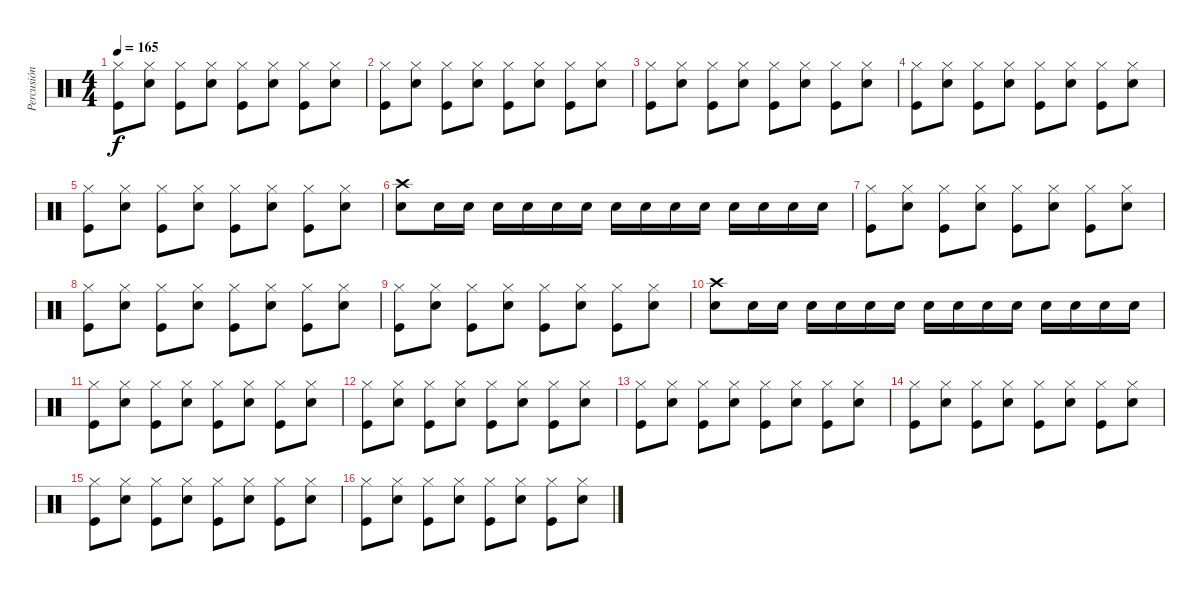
\track ("Percusión" "Percusión") {instrument percussion}
\staff {score}
\articulation defaults
\ts (4 4)
\tempo 165
\clef neutral
\ks c
("Hi-Hat (closed)" "Kick (hit)").8{dy f} ("Hi-Hat (closed)" "Snare (hit) 2").8 ("Hi-Hat (closed)" "Kick (hit)").8 ("Hi-Hat (closed)" "Snare (hit) 2").8 ("Hi-Hat (closed)" "Kick (hit)").8 ("Hi-Hat (closed)" "Snare (hit) 2").8 ("Hi-Hat (closed)" "Kick (hit)").8 ("Hi-Hat (closed)" "Snare (hit) 2").8 |
("Hi-Hat (closed)" "Kick (hit)").8 ("Hi-Hat (closed)" "Snare (hit) 2").8 ("Hi-Hat (closed)" "Kick (hit)").8 ("Hi-Hat (closed)" "Snare (hit) 2").8 ("Hi-Hat (closed)" "Kick (hit)").8 ("Hi-Hat (closed)" "Snare (hit) 2").8 ("Hi-Hat (closed)" "Kick (hit)").8 ("Hi-Hat (closed)" "Snare (hit) 2").8 |
("Hi-Hat (closed)" "Kick (hit)").8 ("Hi-Hat (closed)" "Snare (hit) 2").8 ("Hi-Hat (closed)" "Kick (hit)").8 ("Hi-Hat (closed)" "Snare (hit) 2").8 ("Hi-Hat (closed)" "Kick (hit)").8 ("Hi-Hat (closed)" "Snare (hit) 2").8 ("Hi-Hat (closed)" "Kick (hit)").8 ("Hi-Hat (closed)" "Snare (hit) 2").8 |
("Hi-Hat (closed)" "Kick (hit)").8 ("Hi-Hat (closed)" "Snare (hit) 2").8 ("Hi-Hat (closed)" "Kick (hit)").8 ("Hi-Hat (closed)" "Snare (hit) 2").8 ("Hi-Hat (closed)" "Kick (hit)").8 ("Hi-Hat (closed)" "Snare (hit) 2").8 ("Hi-Hat (closed)" "Kick (hit)").8 ("Hi-Hat (closed)" "Snare (hit) 2").8 |
("Hi-Hat (closed)" "Kick (hit)").8 ("Hi-Hat (closed)" "Snare (hit) 2").8 ("Hi-Hat (closed)" "Kick (hit)").8 ("Hi-Hat (closed)" "Snare (hit) 2").8 ("Hi-Hat (closed)" "Kick (hit)").8 ("Hi-Hat (closed)" "Snare (hit) 2").8 ("Hi-Hat (closed)" "Kick (hit)").8 ("Hi-Hat (closed)" "Snare (hit) 2").8 |
("Crash high (hit)" "Snare (hit) 2").8 "Snare (hit) 2".16 "Snare (hit) 2".16 "Snare (hit) 2".16 "Snare (hit) 2".16 "Snare (hit) 2".16 "Snare (hit) 2".16 "Snare (hit) 2".16 "Snare (hit) 2".16 "Snare (hit) 2".16 "Snare (hit) 2".16 "Snare (hit) 2".16 "Snare (hit) 2".16 "Snare (hit) 2".16 "Snare (hit) 2".16 |
("Hi-Hat (closed)" "Kick (hit)").8 ("Hi-Hat (closed)" "Snare (hit) 2").8 ("Hi-Hat (closed)" "Kick (hit)").8 ("Hi-Hat (closed)" "Snare (hit) 2").8 ("Hi-Hat (closed)" "Kick (hit)").8 ("Hi-Hat (closed)" "Snare (hit) 2").8 ("Hi-Hat (closed)" "Kick (hit)").8 ("Hi-Hat (closed)" "Snare (hit) 2").8 |
("Hi-Hat (closed)" "Kick (hit)").8 ("Hi-Hat (closed)" "Snare (hit) 2").8 ("Hi-Hat (closed)" "Kick (hit)").8 ("Hi-Hat (closed)" "Snare (hit) 2").8 ("Hi-Hat (closed)" "Kick (hit)").8 ("Hi-Hat (closed)" "Snare (hit) 2").8 ("Hi-Hat (closed)" "Kick (hit)").8 ("Hi-Hat (closed)" "Snare (hit) 2").8 |
("Hi-Hat (closed)" "Kick (hit)").8 ("Hi-Hat (closed)" "Snare (hit) 2").8 ("Hi-Hat (closed)" "Kick (hit)").8 ("Hi-Hat (closed)" "Snare (hit) 2").8 ("Hi-Hat (closed)" "Kick (hit)").8 ("Hi-Hat (closed)" "Snare (hit) 2").8 ("Hi-Hat (closed)" "Kick (hit)").8 ("Hi-Hat (closed)" "Snare (hit) 2").8 |
("Crash high (hit)" "Snare (hit) 2").8 "Snare (hit) 2".16 "Snare (hit) 2".16 "Snare (hit) 2".16 "Snare (hit) 2".16 "Snare (hit) 2".16 "Snare (hit) 2".16 "Snare (hit) 2".16 "Snare (hit) 2".16 "Snare (hit) 2".16 "Snare (hit) 2".16 "Snare (hit) 2".16 "Snare (hit) 2".16 "Snare (hit) 2".16 "Snare (hit) 2".16 |
("Hi-Hat (closed)" "Kick (hit)").8 ("Hi-Hat (closed)" "Snare (hit) 2").8 ("Hi-Hat (closed)" "Kick (hit)").8 ("Hi-Hat (closed)" "Snare (hit) 2").8 ("Hi-Hat (closed)" "Kick (hit)").8 ("Hi-Hat (closed)" "Snare (hit) 2").8 ("Hi-Hat (closed)" "Kick (hit)").8 ("Hi-Hat (closed)" "Snare (hit) 2").8 |
("Hi-Hat (closed)" "Kick (hit)").8 ("Hi-Hat (closed)" "Snare (hit) 2").8 ("Hi-Hat (closed)" "Kick (hit)").8 ("Hi-Hat (closed)" "Snare (hit) 2").8 ("Hi-Hat (closed)" "Kick (hit)").8 ("Hi-Hat (closed)" "Snare (hit) 2").8 ("Hi-Hat (closed)" "Kick (hit)").8 ("Hi-Hat (closed)" "Snare (hit) 2").8 |
("Hi-Hat (closed)" "Kick (hit)").8 ("Hi-Hat (closed)" "Snare (hit) 2").8 ("Hi-Hat (closed)" "Kick (hit)").8 ("Hi-Hat (closed)" "Snare (hit) 2").8 ("Hi-Hat (closed)" "Kick (hit)").8 ("Hi-Hat (closed)" "Snare (hit) 2").8 ("Hi-Hat (closed)" "Kick (hit)").8 ("Hi-Hat (closed)" "Snare (hit) 2").8 |
("Hi-Hat (closed)" "Kick (hit)").8 ("Hi-Hat (closed)" "Snare (hit) 2").8 ("Hi-Hat (closed)" "Kick (hit)").8 ("Hi-Hat (closed)" "Snare (hit) 2").8 ("Hi-Hat (closed)" "Kick (hit)").8 ("Hi-Hat (closed)" "Snare (hit) 2").8 ("Hi-Hat (closed)" "Kick (hit)").8 ("Hi-Hat (closed)" "Snare (hit) 2").8 |
("Hi-Hat (closed)" "Kick (hit)").8 ("Hi-Hat (closed)" "Snare (hit) 2").8 ("Hi-Hat (closed)" "Kick (hit)").8 ("Hi-Hat (closed)" "Snare (hit) 2").8 ("Hi-Hat (closed)" "Kick (hit)").8 ("Hi-Hat (closed)" "Snare (hit) 2").8 ("Hi-Hat (closed)" "Kick (hit)").8 ("Hi-Hat (closed)" "Snare (hit) 2").8 |
("Hi-Hat (closed)" "Kick (hit)").8 ("Hi-Hat (closed)" "Snare (hit) 2").8 ("Hi-Hat (closed)" "Kick (hit)").8 ("Hi-Hat (closed)" "Snare (hit) 2").8 ("Hi-Hat (closed)" "Kick (hit)").8 ("Hi-Hat (closed)" "Snare (hit) 2").8 ("Hi-Hat (closed)" "Kick (hit)").8 ("Hi-Hat (closed)" "Snare (hit) 2").8
